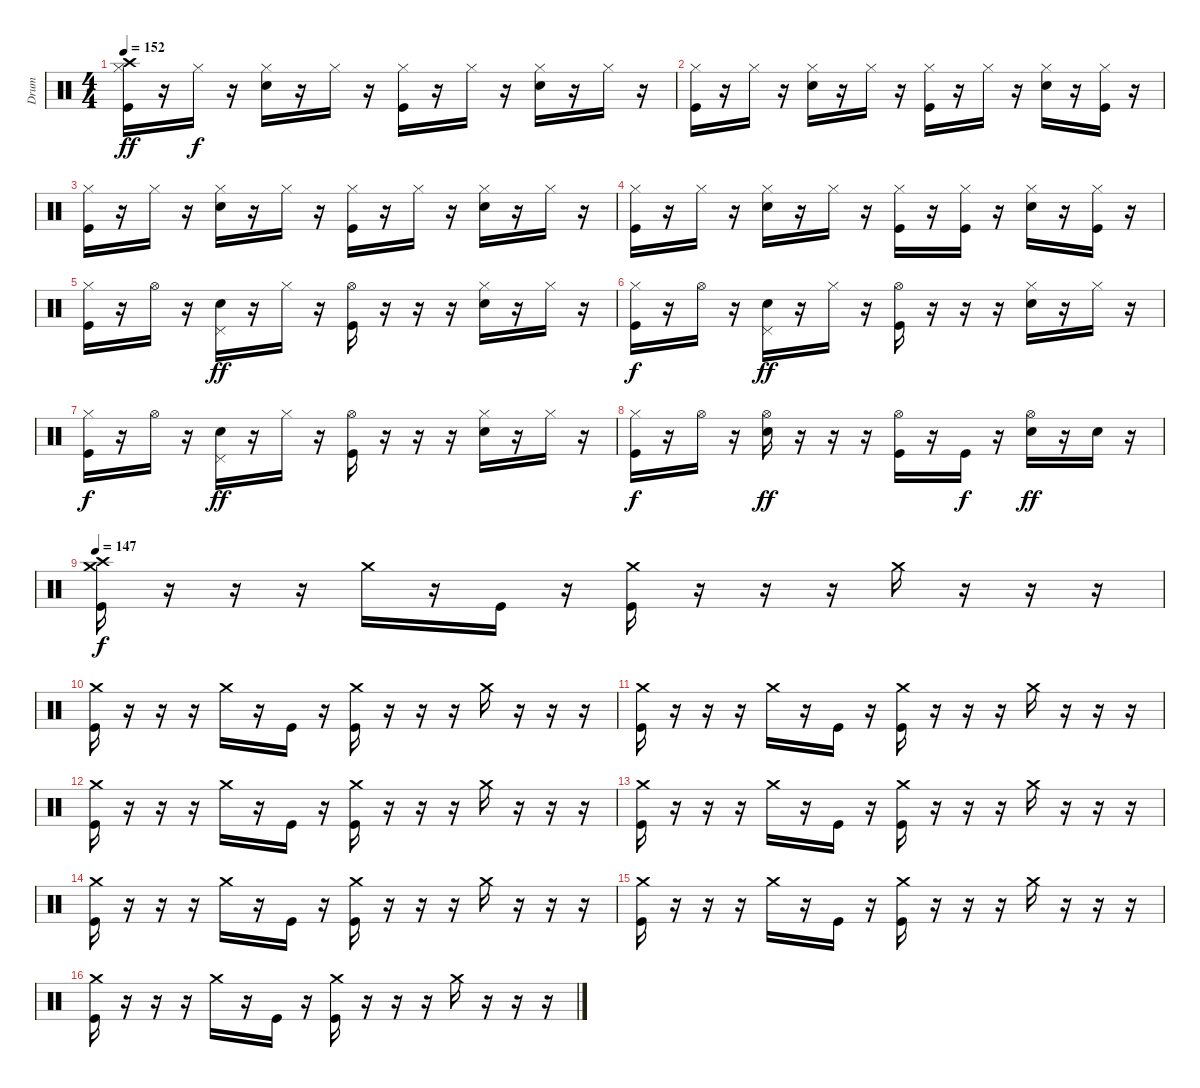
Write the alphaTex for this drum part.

\track ("Drum" "Drum") {instrument percussion}
\staff {score}
\articulation defaults
\ts (4 4)
\tempo 152
\clef neutral
\ks c
("Crash high (hit)" "Hi-Hat (closed)" "Kick (hit)").16{dy ff} r.16 "Hi-Hat (closed)".16{dy f} r.16 ("Hi-Hat (closed)" "Electric Snare (hit)").16 r.16 "Hi-Hat (closed)".16 r.16 ("Hi-Hat (closed)" "Kick (hit)").16 r.16 "Hi-Hat (closed)".16 r.16 ("Hi-Hat (closed)" "Electric Snare (hit)").16 r.16 "Hi-Hat (closed)".16 r.16 |
("Hi-Hat (closed)" "Kick (hit)").16 r.16 "Hi-Hat (closed)".16 r.16 ("Hi-Hat (closed)" "Electric Snare (hit)").16 r.16 "Hi-Hat (closed)".16 r.16 ("Hi-Hat (closed)" "Kick (hit)").16 r.16 "Hi-Hat (closed)".16 r.16 ("Hi-Hat (closed)" "Electric Snare (hit)").16 r.16 ("Hi-Hat (closed)" "Kick (hit)").16 r.16 |
("Hi-Hat (closed)" "Kick (hit)").16 r.16 "Hi-Hat (closed)".16 r.16 ("Hi-Hat (closed)" "Electric Snare (hit)").16 r.16 "Hi-Hat (closed)".16 r.16 ("Hi-Hat (closed)" "Kick (hit)").16 r.16 "Hi-Hat (closed)".16 r.16 ("Hi-Hat (closed)" "Electric Snare (hit)").16 r.16 "Hi-Hat (closed)".16 r.16 |
("Hi-Hat (closed)" "Kick (hit)").16 r.16 "Hi-Hat (closed)".16 r.16 ("Hi-Hat (closed)" "Electric Snare (hit)").16 r.16 "Hi-Hat (closed)".16 r.16 ("Hi-Hat (closed)" "Kick (hit)").16 r.16 ("Hi-Hat (closed)" "Kick (hit)").16 r.16 ("Hi-Hat (closed)" "Electric Snare (hit)").16 r.16 ("Hi-Hat (closed)" "Kick (hit)").16 r.16 |
("Hi-Hat (closed)" "Kick (hit)").16 r.16 "Hi-Hat (open)".16 r.16 ("Pedal Hi-Hat (hit)" "Electric Snare (hit)").16{dy ff} r.16 "Hi-Hat (closed)".16 r.16 ("Hi-Hat (open)" "Kick (hit)").16 r.16 r.16 r.16 ("Hi-Hat (closed)" "Electric Snare (hit)").16 r.16 "Hi-Hat (closed)".16 r.16 |
("Hi-Hat (closed)" "Kick (hit)").16{dy f} r.16 "Hi-Hat (open)".16 r.16 ("Pedal Hi-Hat (hit)" "Electric Snare (hit)").16{dy ff} r.16 "Hi-Hat (closed)".16 r.16 ("Hi-Hat (open)" "Kick (hit)").16 r.16 r.16 r.16 ("Hi-Hat (closed)" "Electric Snare (hit)").16 r.16 "Hi-Hat (closed)".16 r.16 |
("Hi-Hat (closed)" "Kick (hit)").16{dy f} r.16 "Hi-Hat (open)".16 r.16 ("Pedal Hi-Hat (hit)" "Electric Snare (hit)").16{dy ff} r.16 "Hi-Hat (closed)".16 r.16 ("Hi-Hat (open)" "Kick (hit)").16 r.16 r.16 r.16 ("Hi-Hat (closed)" "Electric Snare (hit)").16 r.16 "Hi-Hat (closed)".16 r.16 |
("Hi-Hat (closed)" "Kick (hit)").16{dy f} r.16 "Hi-Hat (open)".16 r.16 ("Hi-Hat (open)" "Electric Snare (hit)").16{dy ff} r.16 r.16 r.16 ("Hi-Hat (open)" "Kick (hit)").16 r.16 "Kick (hit)".16{dy f} r.16 ("Hi-Hat (open)" "Electric Snare (hit)").16{dy ff} r.16 "Electric Snare (hit)".16 r.16 |
\tempo 147
("Crash medium (hit)" "Crash high (hit)" "Kick (hit)").16{dy f} r.16 r.16 r.16 "Crash medium (hit)".16 r.16 "Kick (hit)".16 r.16 ("Crash medium (hit)" "Kick (hit)").16 r.16 r.16 r.16 "Crash medium (hit)".16 r.16 r.16 r.16 |
("Crash medium (hit)" "Kick (hit)").16 r.16 r.16 r.16 "Crash medium (hit)".16 r.16 "Kick (hit)".16 r.16 ("Crash medium (hit)" "Kick (hit)").16 r.16 r.16 r.16 "Crash medium (hit)".16 r.16 r.16 r.16 |
("Crash medium (hit)" "Kick (hit)").16 r.16 r.16 r.16 "Crash medium (hit)".16 r.16 "Kick (hit)".16 r.16 ("Crash medium (hit)" "Kick (hit)").16 r.16 r.16 r.16 "Crash medium (hit)".16 r.16 r.16 r.16 |
("Crash medium (hit)" "Kick (hit)").16 r.16 r.16 r.16 "Crash medium (hit)".16 r.16 "Kick (hit)".16 r.16 ("Crash medium (hit)" "Kick (hit)").16 r.16 r.16 r.16 "Crash medium (hit)".16 r.16 r.16 r.16 |
("Crash medium (hit)" "Kick (hit)").16 r.16 r.16 r.16 "Crash medium (hit)".16 r.16 "Kick (hit)".16 r.16 ("Crash medium (hit)" "Kick (hit)").16 r.16 r.16 r.16 "Crash medium (hit)".16 r.16 r.16 r.16 |
("Crash medium (hit)" "Kick (hit)").16 r.16 r.16 r.16 "Crash medium (hit)".16 r.16 "Kick (hit)".16 r.16 ("Crash medium (hit)" "Kick (hit)").16 r.16 r.16 r.16 "Crash medium (hit)".16 r.16 r.16 r.16 |
("Crash medium (hit)" "Kick (hit)").16 r.16 r.16 r.16 "Crash medium (hit)".16 r.16 "Kick (hit)".16 r.16 ("Crash medium (hit)" "Kick (hit)").16 r.16 r.16 r.16 "Crash medium (hit)".16 r.16 r.16 r.16 |
("Crash medium (hit)" "Kick (hit)").16 r.16 r.16 r.16 "Crash medium (hit)".16 r.16 "Kick (hit)".16 r.16 ("Crash medium (hit)" "Kick (hit)").16 r.16 r.16 r.16 "Crash medium (hit)".16 r.16 r.16 r.16
